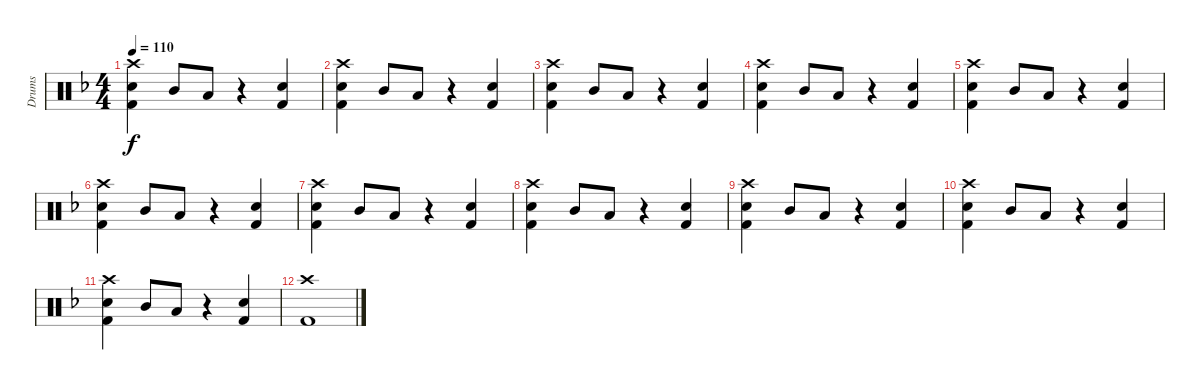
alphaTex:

\track ("Drums" "Drums") {instrument percussion}
\staff {score}
\articulation defaults
\ts (4 4)
\tempo 110
\clef neutral
\ks f
("Crash high (hit)" "Snare (hit) 2" "Kick (hit) 2").4{dy f} "Mid Tom (hit)".8 "Low Tom (hit)".8 r.4 ("Snare (hit) 2" "Kick (hit) 2").4 |
("Crash high (hit)" "Snare (hit) 2" "Kick (hit) 2").4 "Mid Tom (hit)".8 "Low Tom (hit)".8 r.4 ("Snare (hit) 2" "Kick (hit) 2").4 |
("Crash high (hit)" "Snare (hit) 2" "Kick (hit) 2").4 "Mid Tom (hit)".8 "Low Tom (hit)".8 r.4 ("Snare (hit) 2" "Kick (hit) 2").4 |
("Crash high (hit)" "Snare (hit) 2" "Kick (hit) 2").4 "Mid Tom (hit)".8 "Low Tom (hit)".8 r.4 ("Snare (hit) 2" "Kick (hit) 2").4 |
("Crash high (hit)" "Snare (hit) 2" "Kick (hit) 2").4 "Mid Tom (hit)".8 "Low Tom (hit)".8 r.4 ("Snare (hit) 2" "Kick (hit) 2").4 |
("Crash high (hit)" "Snare (hit) 2" "Kick (hit) 2").4 "Mid Tom (hit)".8 "Low Tom (hit)".8 r.4 ("Snare (hit) 2" "Kick (hit) 2").4 |
("Crash high (hit)" "Snare (hit) 2" "Kick (hit) 2").4 "Mid Tom (hit)".8 "Low Tom (hit)".8 r.4 ("Snare (hit) 2" "Kick (hit) 2").4 |
("Crash high (hit)" "Snare (hit) 2" "Kick (hit) 2").4 "Mid Tom (hit)".8 "Low Tom (hit)".8 r.4 ("Snare (hit) 2" "Kick (hit) 2").4 |
("Crash high (hit)" "Snare (hit) 2" "Kick (hit) 2").4 "Mid Tom (hit)".8 "Low Tom (hit)".8 r.4 ("Snare (hit) 2" "Kick (hit) 2").4 |
("Crash high (hit)" "Snare (hit) 2" "Kick (hit) 2").4 "Mid Tom (hit)".8 "Low Tom (hit)".8 r.4 ("Snare (hit) 2" "Kick (hit) 2").4 |
("Crash high (hit)" "Snare (hit) 2" "Kick (hit) 2").4 "Mid Tom (hit)".8 "Low Tom (hit)".8 r.4 ("Snare (hit) 2" "Kick (hit) 2").4 |
("Crash high (hit)" "Kick (hit) 2").1
